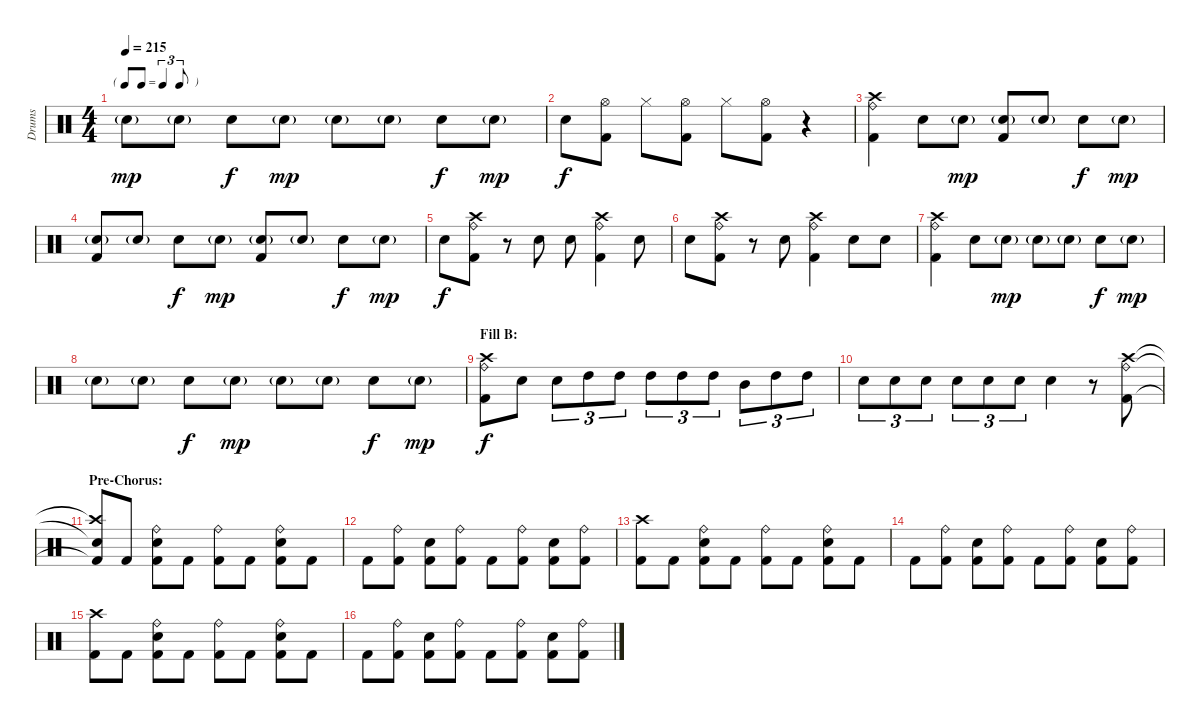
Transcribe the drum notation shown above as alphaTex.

\track ("Drums" "Drums") {instrument percussion}
\staff {score}
\articulation defaults
\ts (4 4)
\tf triplet8th
\tempo 215
\clef neutral
\ks c "Electric Snare (hit)"{g}.8{dy mp} "Electric Snare (hit)"{g}.8 "Electric Snare (hit)".8{dy f} "Electric Snare (hit)"{g}.8{dy mp} "Electric Snare (hit)"{g}.8 "Electric Snare (hit)"{g}.8 "Electric Snare (hit)".8{dy f} "Electric Snare (hit)"{g}.8{dy mp}
|
"Electric Snare (hit)".8{dy f} ("Hi-Hat (open)" "Kick (hit) 2").8 "Hi-Hat (closed)".8 ("Hi-Hat (open)" "Kick (hit) 2").8 "Hi-Hat (closed)".8 ("Hi-Hat (open)" "Kick (hit) 2").8 r.4 |
("Crash high (hit)" "Ride (bell)" "Kick (hit) 2").4 "Electric Snare (hit)".8 "Electric Snare (hit)"{g}.8{dy mp} ("Electric Snare (hit)"{g} "Kick (hit) 2").8 "Electric Snare (hit)"{g}.8 "Electric Snare (hit)".8{dy f} "Electric Snare (hit)"{g}.8{dy mp} |
("Electric Snare (hit)"{g} "Kick (hit) 2").8 "Electric Snare (hit)"{g}.8 "Electric Snare (hit)".8{dy f} "Electric Snare (hit)"{g}.8{dy mp} ("Electric Snare (hit)"{g} "Kick (hit) 2").8 "Electric Snare (hit)"{g}.8 "Electric Snare (hit)".8{dy f} "Electric Snare (hit)"{g}.8{dy mp} |
"Electric Snare (hit)".8{dy f} ("Crash high (hit)" "Ride (bell)" "Kick (hit) 2").8 r.8 "Electric Snare (hit)".8 "Electric Snare (hit)".8 ("Crash high (hit)" "Ride (bell)" "Kick (hit) 2").4 "Electric Snare (hit)".8 |
"Electric Snare (hit)".8 ("Crash high (hit)" "Ride (bell)" "Kick (hit) 2").8 r.8 "Electric Snare (hit)".8 ("Crash high (hit)" "Ride (bell)" "Kick (hit) 2").4 "Electric Snare (hit)".8 "Electric Snare (hit)".8 |
("Crash high (hit)" "Ride (bell)" "Kick (hit) 2").4 "Electric Snare (hit)".8 "Electric Snare (hit)"{g}.8{dy mp} "Electric Snare (hit)"{g}.8 "Electric Snare (hit)"{g}.8 "Electric Snare (hit)".8{dy f} "Electric Snare (hit)"{g}.8{dy mp} |
"Electric Snare (hit)"{g}.8 "Electric Snare (hit)"{g}.8 "Electric Snare (hit)".8{dy f} "Electric Snare (hit)"{g}.8{dy mp} "Electric Snare (hit)"{g}.8 "Electric Snare (hit)"{g}.8 "Electric Snare (hit)".8{dy f} "Electric Snare (hit)"{g}.8{dy mp} |
\section ("" "Fill B:")
("Crash high (hit)" "Ride (bell)" "Kick (hit) 2").8{dy f} "Electric Snare (hit)".8 "Electric Snare (hit)".8{tu (3 2)} "High Tom (hit)".8{tu (3 2)} "High Tom (hit)".8{tu (3 2)} "High Tom (hit)".8{tu (3 2)} "High Tom (hit)".8{tu (3 2)} "High Tom (hit)".8{tu (3 2)} "Mid Tom (hit)".8{tu (3 2)} "High Tom (hit)".8{tu (3 2)} "High Tom (hit)".8{tu (3 2)} |
"Electric Snare (hit)".8{tu (3 2)} "Electric Snare (hit)".8{tu (3 2)} "Electric Snare (hit)".8{tu (3 2)} "Electric Snare (hit)".8{tu (3 2)} "Electric Snare (hit)".8{tu (3 2)} "Electric Snare (hit)".8{tu (3 2)} "Electric Snare (hit)".4 r.8 ("Crash high (hit)" "Ride (bell)" "Kick (hit) 2").8 |
\section ("" "Pre-Chorus:")
("Crash high (hit)"{t} "Snare (hit)"{t} "Kick (hit) 2"{t}).8 "Kick (hit) 2".8 ("Ride (bell)" "Electric Snare (hit)" "Kick (hit) 2").8 "Kick (hit) 2".8 ("Ride (bell)" "Kick (hit) 2").8 "Kick (hit) 2".8 ("Ride (bell)" "Electric Snare (hit)" "Kick (hit) 2").8 "Kick (hit) 2".8 |
"Kick (hit) 2".8 ("Ride (bell)" "Kick (hit) 2").8 ("Electric Snare (hit)" "Kick (hit) 2").8 ("Ride (bell)" "Kick (hit) 2").8 "Kick (hit) 2".8 ("Ride (bell)" "Kick (hit) 2").8 ("Electric Snare (hit)" "Kick (hit) 2").8 ("Ride (bell)" "Kick (hit) 2").8 |
("Crash high (hit)" "Kick (hit) 2").8 "Kick (hit) 2".8 ("Ride (bell)" "Electric Snare (hit)" "Kick (hit) 2").8 "Kick (hit) 2".8 ("Ride (bell)" "Kick (hit) 2").8 "Kick (hit) 2".8 ("Ride (bell)" "Electric Snare (hit)" "Kick (hit) 2").8 "Kick (hit) 2".8 |
"Kick (hit) 2".8 ("Ride (bell)" "Kick (hit) 2").8 ("Electric Snare (hit)" "Kick (hit) 2").8 ("Ride (bell)" "Kick (hit) 2").8 "Kick (hit) 2".8 ("Ride (bell)" "Kick (hit) 2").8 ("Electric Snare (hit)" "Kick (hit) 2").8 ("Ride (bell)" "Kick (hit) 2").8 |
("Crash high (hit)" "Kick (hit) 2").8 "Kick (hit) 2".8 ("Ride (bell)" "Electric Snare (hit)" "Kick (hit) 2").8 "Kick (hit) 2".8 ("Ride (bell)" "Kick (hit) 2").8 "Kick (hit) 2".8 ("Ride (bell)" "Electric Snare (hit)" "Kick (hit) 2").8 "Kick (hit) 2".8 |
"Kick (hit) 2".8 ("Ride (bell)" "Kick (hit) 2").8 ("Electric Snare (hit)" "Kick (hit) 2").8 ("Ride (bell)" "Kick (hit) 2").8 "Kick (hit) 2".8 ("Ride (bell)" "Kick (hit) 2").8 ("Electric Snare (hit)" "Kick (hit) 2").8 ("Ride (bell)" "Kick (hit) 2").8
